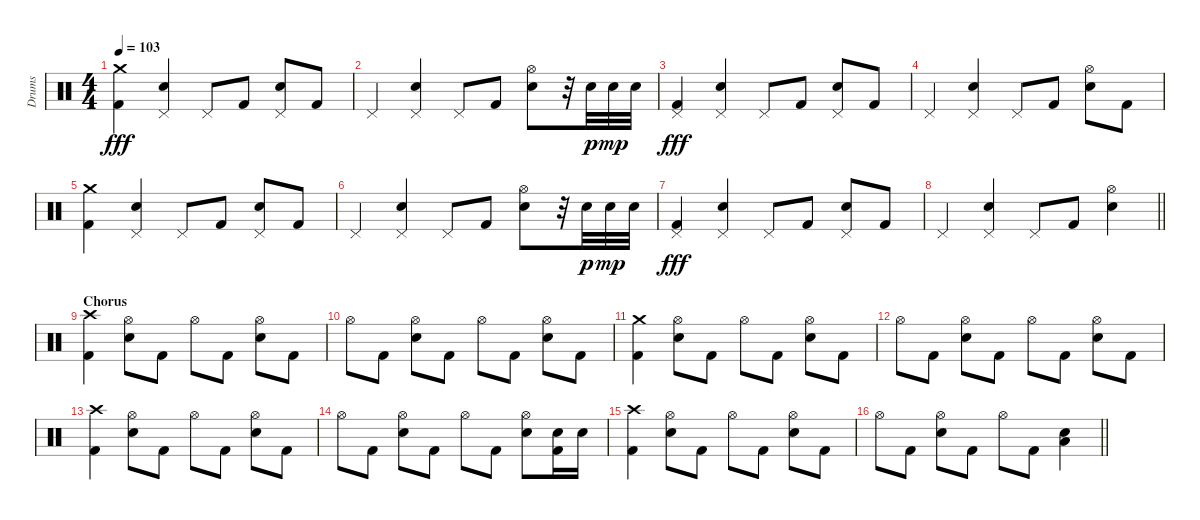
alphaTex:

\track ("Drums" "Drums") {instrument percussion}
\staff {score}
\articulation defaults
\ts (4 4)
\tempo 103
\clef neutral
\ks c
("Crash medium (hit)" "Kick (hit) 2").4{dy fff} ("Pedal Hi-Hat (hit)" "Snare (hit) 2").4 "Pedal Hi-Hat (hit)".8 "Kick (hit) 2".8 ("Pedal Hi-Hat (hit)" "Snare (hit) 2").8 "Kick (hit) 2".8 |
"Pedal Hi-Hat (hit)".4 ("Pedal Hi-Hat (hit)" "Snare (hit) 2").4 "Pedal Hi-Hat (hit)".8 "Kick (hit) 2".8 ("Hi-Hat (open)" "Snare (hit) 2").8 r.32 "Snare (hit) 2".32{dy p} "Snare (hit) 2".32{dy mp} "Snare (hit) 2".32 |
("Pedal Hi-Hat (hit)" "Kick (hit) 2").4{dy fff} ("Pedal Hi-Hat (hit)" "Snare (hit) 2").4 "Pedal Hi-Hat (hit)".8 "Kick (hit) 2".8 ("Pedal Hi-Hat (hit)" "Snare (hit) 2").8 "Kick (hit) 2".8 |
"Pedal Hi-Hat (hit)".4 ("Pedal Hi-Hat (hit)" "Snare (hit) 2").4 "Pedal Hi-Hat (hit)".8 "Kick (hit) 2".8 ("Hi-Hat (open)" "Snare (hit) 2").8 "Kick (hit) 2".8 |
("Crash medium (hit)" "Kick (hit) 2").4 ("Pedal Hi-Hat (hit)" "Snare (hit) 2").4 "Pedal Hi-Hat (hit)".8 "Kick (hit) 2".8 ("Pedal Hi-Hat (hit)" "Snare (hit) 2").8 "Kick (hit) 2".8 |
"Pedal Hi-Hat (hit)".4 ("Pedal Hi-Hat (hit)" "Snare (hit) 2").4 "Pedal Hi-Hat (hit)".8 "Kick (hit) 2".8 ("Hi-Hat (open)" "Snare (hit) 2").8 r.32 "Snare (hit) 2".32{dy p} "Snare (hit) 2".32{dy mp} "Snare (hit) 2".32 |
("Pedal Hi-Hat (hit)" "Kick (hit) 2").4{dy fff} ("Pedal Hi-Hat (hit)" "Snare (hit) 2").4 "Pedal Hi-Hat (hit)".8 "Kick (hit) 2".8 ("Pedal Hi-Hat (hit)" "Snare (hit) 2").8 "Kick (hit) 2".8 |
\barLineRight lightlight "Pedal Hi-Hat (hit)".4
("Pedal Hi-Hat (hit)" "Snare (hit) 2").4 "Pedal Hi-Hat (hit)".8 "Kick (hit) 2".8 ("Hi-Hat (open)" "Snare (hit) 2").4 |
\section ("" "Chorus")
("Crash high (hit)" "Kick (hit) 2").4 ("Hi-Hat (open)" "Snare (hit) 2").8 "Kick (hit) 2".8 "Hi-Hat (open)".8 "Kick (hit) 2".8 ("Hi-Hat (open)" "Snare (hit) 2").8 "Kick (hit) 2".8 |
"Hi-Hat (open)".8 "Kick (hit) 2".8 ("Hi-Hat (open)" "Snare (hit) 2").8 "Kick (hit) 2".8 "Hi-Hat (open)".8 "Kick (hit) 2".8 ("Hi-Hat (open)" "Snare (hit) 2").8 "Kick (hit) 2".8 |
("Crash medium (hit)" "Kick (hit) 2").4 ("Hi-Hat (open)" "Snare (hit) 2").8 "Kick (hit) 2".8 "Hi-Hat (open)".8 "Kick (hit) 2".8 ("Hi-Hat (open)" "Snare (hit) 2").8 "Kick (hit) 2".8 |
"Hi-Hat (open)".8 "Kick (hit) 2".8 ("Hi-Hat (open)" "Snare (hit) 2").8 "Kick (hit) 2".8 "Hi-Hat (open)".8 "Kick (hit) 2".8 ("Hi-Hat (open)" "Snare (hit) 2").8 "Kick (hit) 2".8 |
("Crash high (hit)" "Kick (hit) 2").4 ("Hi-Hat (open)" "Snare (hit) 2").8 "Kick (hit) 2".8 "Hi-Hat (open)".8 "Kick (hit) 2".8 ("Hi-Hat (open)" "Snare (hit) 2").8 "Kick (hit) 2".8 |
"Hi-Hat (open)".8 "Kick (hit) 2".8 ("Hi-Hat (open)" "Snare (hit) 2").8 "Kick (hit) 2".8 "Hi-Hat (open)".8 "Kick (hit) 2".8 ("Hi-Hat (open)" "Snare (hit) 2").8 ("Snare (hit) 2" "Kick (hit) 2").16 "Snare (hit) 2".16 |
("Crash high (hit)" "Kick (hit) 2").4 ("Hi-Hat (open)" "Snare (hit) 2").8 "Kick (hit) 2".8 "Hi-Hat (open)".8 "Kick (hit) 2".8 ("Hi-Hat (open)" "Snare (hit) 2").8 "Kick (hit) 2".8 |
\barLineRight lightlight "Hi-Hat (open)".8 "Kick (hit) 2".8
("Hi-Hat (open)" "Snare (hit) 2").8 "Kick (hit) 2".8 "Hi-Hat (open)".8 "Kick (hit) 2".8 ("Low Tom (hit)" "Snare (hit) 2").4
